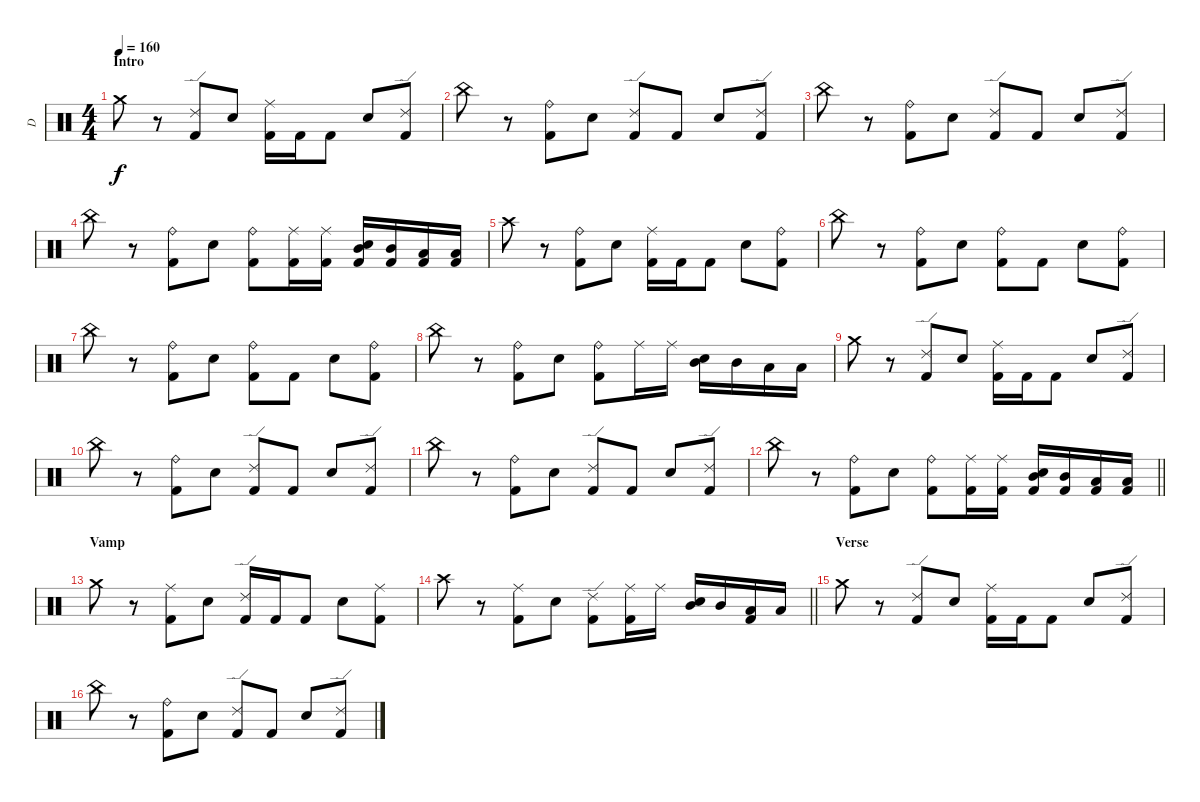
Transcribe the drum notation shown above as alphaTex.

\track ("D" "D") {instrument percussion}
\staff {score}
\articulation defaults
\ts (4 4)
\section ("" "Intro")
\tempo 160
\clef neutral
\ks c "Crash medium (hit)".8{dy f}
r.8 ("Ride (edge) 2" "Kick (hit) 2").8 "Electric Snare (hit)".8 ("Ride (middle)" "Kick (hit) 2").16 "Kick (hit) 2".16 "Kick (hit) 2".8 "Electric Snare (hit)".8 ("Ride (edge) 2" "Kick (hit) 2").8 |
"China (hit)".8 r.8 ("Ride (bell)" "Kick (hit) 2").8 "Electric Snare (hit)".8 ("Ride (edge) 2" "Kick (hit) 2").8 "Kick (hit) 2".8 "Electric Snare (hit)".8 ("Ride (edge) 2" "Kick (hit) 2").8 |
"China (hit)".8 r.8 ("Ride (bell)" "Kick (hit) 2").8 "Electric Snare (hit)".8 ("Ride (edge) 2" "Kick (hit) 2").8 "Kick (hit) 2".8 "Electric Snare (hit)".8 ("Ride (edge) 2" "Kick (hit) 2").8 |
"China (hit)".8 r.8 ("Ride (bell)" "Kick (hit) 2").8 "Electric Snare (hit)".8 ("Ride (bell)" "Kick (hit) 2").8 ("Ride (middle)" "Kick (hit) 2").16 ("Ride (middle)" "Kick (hit) 2").16 ("Mid Tom (hit)" "Electric Snare (hit)" "Kick (hit) 2").16 ("Mid Tom (hit)" "Kick (hit) 2").16 ("Low Tom (hit)" "Kick (hit) 2").16 ("Low Tom (hit)" "Kick (hit) 2").16 |
"Crash high (hit)".8 r.8 ("Ride (bell)" "Kick (hit) 2").8 "Electric Snare (hit)".8 ("Ride (middle)" "Kick (hit) 2").16 "Kick (hit) 2".16 "Kick (hit) 2".8 "Electric Snare (hit)".8 ("Ride (bell)" "Kick (hit) 2").8 |
"China (hit)".8 r.8 ("Ride (bell)" "Kick (hit) 2").8 "Electric Snare (hit)".8 ("Ride (bell)" "Kick (hit) 2").8 "Kick (hit) 2".8 "Electric Snare (hit)".8 ("Ride (bell)" "Kick (hit) 2").8 |
"China (hit)".8 r.8 ("Ride (bell)" "Kick (hit) 2").8 "Electric Snare (hit)".8 ("Ride (bell)" "Kick (hit) 2").8 "Kick (hit) 2".8 "Electric Snare (hit)".8 ("Ride (bell)" "Kick (hit) 2").8 |
"China (hit)".8 r.8 ("Ride (bell)" "Kick (hit) 2").8 "Electric Snare (hit)".8 ("Ride (bell)" "Kick (hit) 2").8 "Ride (middle)".16 "Ride (middle)".16 ("Mid Tom (hit)" "Electric Snare (hit)").16 "Mid Tom (hit)".16 "Low Tom (hit)".16 "Low Tom (hit)".16 |
"Crash medium (hit)".8 r.8 ("Ride (edge) 2" "Kick (hit) 2").8 "Electric Snare (hit)".8 ("Ride (middle)" "Kick (hit) 2").16 "Kick (hit) 2".16 "Kick (hit) 2".8 "Electric Snare (hit)".8 ("Ride (edge) 2" "Kick (hit) 2").8 |
"China (hit)".8 r.8 ("Ride (bell)" "Kick (hit) 2").8 "Electric Snare (hit)".8 ("Ride (edge) 2" "Kick (hit) 2").8 "Kick (hit) 2".8 "Electric Snare (hit)".8 ("Ride (edge) 2" "Kick (hit) 2").8 |
"China (hit)".8 r.8 ("Ride (bell)" "Kick (hit) 2").8 "Electric Snare (hit)".8 ("Ride (edge) 2" "Kick (hit) 2").8 "Kick (hit) 2".8 "Electric Snare (hit)".8 ("Ride (edge) 2" "Kick (hit) 2").8 |
\barLineRight lightlight "China (hit)".8
r.8 ("Ride (bell)" "Kick (hit) 2").8 "Electric Snare (hit)".8 ("Ride (bell)" "Kick (hit) 2").8 ("Ride (middle)" "Kick (hit) 2").16 ("Ride (middle)" "Kick (hit) 2").16 ("Mid Tom (hit)" "Electric Snare (hit)" "Kick (hit) 2").16 ("Mid Tom (hit)" "Kick (hit) 2").16 ("Low Tom (hit)" "Kick (hit) 2").16 ("Low Tom (hit)" "Kick (hit) 2").16 |
\section ("" "Vamp")
"Crash medium (hit)".8 r.8 ("Ride (middle)" "Kick (hit) 2").8 "Electric Snare (hit)".8 ("Ride (edge) 2" "Kick (hit) 2").16 "Kick (hit) 2".16 "Kick (hit) 2".8 "Electric Snare (hit)".8 ("Ride (middle)" "Kick (hit) 2").8 |
\barLineRight lightlight "Crash high (hit)".8
r.8 ("Ride (middle)" "Kick (hit) 2").8 "Electric Snare (hit)".8 ("Ride (edge) 2" "Kick (hit) 2").8 ("Ride (middle)" "Kick (hit) 2").16 "Ride (middle)".16 ("Mid Tom (hit)" "Electric Snare (hit)").16 "Mid Tom (hit)".16 ("Low Tom (hit)" "Kick (hit) 2").16 "Low Tom (hit)".16 |
\section ("" "Verse")
"Crash medium (hit)".8 r.8 ("Ride (edge) 2" "Kick (hit) 2").8 "Electric Snare (hit)".8 ("Ride (middle)" "Kick (hit) 2").16 "Kick (hit) 2".16 "Kick (hit) 2".8 "Electric Snare (hit)".8 ("Ride (edge) 2" "Kick (hit) 2").8 |
"China (hit)".8 r.8 ("Ride (bell)" "Kick (hit) 2").8 "Electric Snare (hit)".8 ("Ride (edge) 2" "Kick (hit) 2").8 "Kick (hit) 2".8 "Electric Snare (hit)".8 ("Ride (edge) 2" "Kick (hit) 2").8
